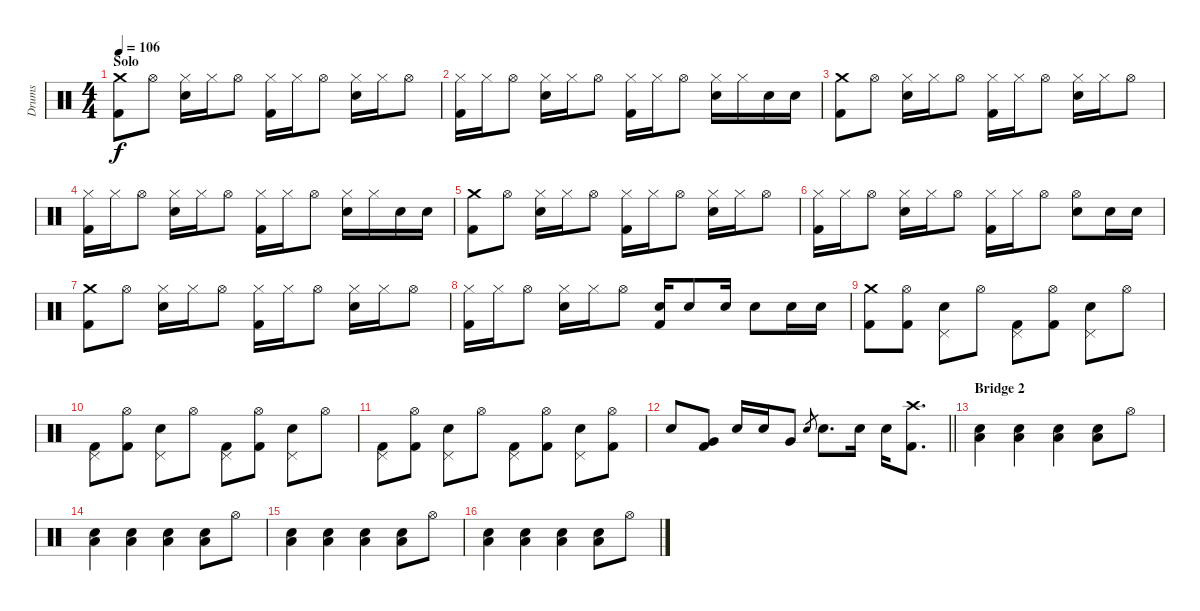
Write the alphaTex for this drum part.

\track ("Drums" "Drums") {instrument percussion}
\staff {score}
\articulation defaults
\ts (4 4)
\section ("" "Solo")
\tempo 106
\clef neutral
\ks c
("Crash medium (hit)" "Kick (hit) 2").8{dy f} "Hi-Hat (open)".8 ("Hi-Hat (closed)" "Electric Snare (hit)").16 "Hi-Hat (closed)".16 "Hi-Hat (open)".8 ("Hi-Hat (closed)" "Kick (hit) 2").16 "Hi-Hat (closed)".16 "Hi-Hat (open)".8 ("Hi-Hat (closed)" "Electric Snare (hit)").16 "Hi-Hat (closed)".16 "Hi-Hat (open)".8 |
("Hi-Hat (closed)" "Kick (hit) 2").16 "Hi-Hat (closed)".16 "Hi-Hat (open)".8 ("Hi-Hat (closed)" "Electric Snare (hit)").16 "Hi-Hat (closed)".16 "Hi-Hat (open)".8 ("Hi-Hat (closed)" "Kick (hit) 2").16 "Hi-Hat (closed)".16 "Hi-Hat (open)".8 ("Hi-Hat (closed)" "Electric Snare (hit)").16 "Hi-Hat (closed)".16 "Electric Snare (hit)".16 "Electric Snare (hit)".16 |
("Crash medium (hit)" "Kick (hit) 2").8 "Hi-Hat (open)".8 ("Hi-Hat (closed)" "Electric Snare (hit)").16 "Hi-Hat (closed)".16 "Hi-Hat (open)".8 ("Hi-Hat (closed)" "Kick (hit) 2").16 "Hi-Hat (closed)".16 "Hi-Hat (open)".8 ("Hi-Hat (closed)" "Electric Snare (hit)").16 "Hi-Hat (closed)".16 "Hi-Hat (open)".8 |
("Hi-Hat (closed)" "Kick (hit) 2").16 "Hi-Hat (closed)".16 "Hi-Hat (open)".8 ("Hi-Hat (closed)" "Electric Snare (hit)").16 "Hi-Hat (closed)".16 "Hi-Hat (open)".8 ("Hi-Hat (closed)" "Kick (hit) 2").16 "Hi-Hat (closed)".16 "Hi-Hat (open)".8 ("Hi-Hat (closed)" "Electric Snare (hit)").16 "Hi-Hat (closed)".16 "Electric Snare (hit)".16 "Electric Snare (hit)".16 |
("Crash medium (hit)" "Kick (hit) 2").8 "Hi-Hat (open)".8 ("Hi-Hat (closed)" "Electric Snare (hit)").16 "Hi-Hat (closed)".16 "Hi-Hat (open)".8 ("Hi-Hat (closed)" "Kick (hit) 2").16 "Hi-Hat (closed)".16 "Hi-Hat (open)".8 ("Hi-Hat (closed)" "Electric Snare (hit)").16 "Hi-Hat (closed)".16 "Hi-Hat (open)".8 |
("Hi-Hat (closed)" "Kick (hit) 2").16 "Hi-Hat (closed)".16 "Hi-Hat (open)".8 ("Hi-Hat (closed)" "Electric Snare (hit)").16 "Hi-Hat (closed)".16 "Hi-Hat (open)".8 ("Hi-Hat (closed)" "Kick (hit) 2").16 "Hi-Hat (closed)".16 "Hi-Hat (open)".8 ("Hi-Hat (open)" "Electric Snare (hit)").8 "Electric Snare (hit)".16 "Electric Snare (hit)".16 |
("Crash medium (hit)" "Kick (hit) 2").8 "Hi-Hat (open)".8 ("Hi-Hat (closed)" "Electric Snare (hit)").16 "Hi-Hat (closed)".16 "Hi-Hat (open)".8 ("Hi-Hat (closed)" "Kick (hit) 2").16 "Hi-Hat (closed)".16 "Hi-Hat (open)".8 ("Hi-Hat (closed)" "Electric Snare (hit)").16 "Hi-Hat (closed)".16 "Hi-Hat (open)".8 |
("Hi-Hat (closed)" "Kick (hit) 2").16 "Hi-Hat (closed)".16 "Hi-Hat (open)".8 ("Hi-Hat (closed)" "Electric Snare (hit)").16 "Hi-Hat (closed)".16 "Hi-Hat (open)".8 ("Electric Snare (hit)" "Kick (hit) 2").16 "Electric Snare (hit)".8 "Electric Snare (hit)".16 "Electric Snare (hit)".8 "Electric Snare (hit)".16 "Electric Snare (hit)".16 |
("Crash medium (hit)" "Kick (hit) 2").8 ("Hi-Hat (open)" "Kick (hit) 2").8 ("Pedal Hi-Hat (hit)" "Electric Snare (hit)").8 "Hi-Hat (open)".8 ("Pedal Hi-Hat (hit)" "Kick (hit) 2").8 ("Hi-Hat (open)" "Kick (hit) 2").8 ("Pedal Hi-Hat (hit)" "Electric Snare (hit)").8 "Hi-Hat (open)".8 |
("Pedal Hi-Hat (hit)" "Kick (hit) 2").8 ("Hi-Hat (open)" "Kick (hit) 2").8 ("Pedal Hi-Hat (hit)" "Electric Snare (hit)").8 "Hi-Hat (open)".8 ("Pedal Hi-Hat (hit)" "Kick (hit) 2").8 ("Hi-Hat (open)" "Kick (hit) 2").8 ("Pedal Hi-Hat (hit)" "Electric Snare (hit)").8 "Hi-Hat (open)".8 |
("Pedal Hi-Hat (hit)" "Kick (hit) 2").8 ("Hi-Hat (open)" "Kick (hit) 2").8 ("Pedal Hi-Hat (hit)" "Electric Snare (hit)").8 "Hi-Hat (open)".8 ("Pedal Hi-Hat (hit)" "Kick (hit) 2").8 ("Hi-Hat (open)" "Kick (hit) 2").8 ("Pedal Hi-Hat (hit)" "Electric Snare (hit)").8 ("Hi-Hat (open)" "Kick (hit) 2").8 |
\barLineRight lightlight "Electric Snare (hit)".8
("Very Low Tom (hit)" "Kick (hit) 2").8 "Electric Snare (hit)".16 "Electric Snare (hit)".16 "Very Low Tom (hit)".8 "Electric Snare (hit)".8{gr} "Electric Snare (hit)".8{d} "Electric Snare (hit)".16 "Electric Snare (hit)".16 ("Crash high (hit)" "Kick (hit) 2").8{d} |
\section ("" "Bridge 2")
("Low Floor Tom (hit)" "Electric Snare (hit)").4 ("Low Floor Tom (hit)" "Electric Snare (hit)").4 ("Low Floor Tom (hit)" "Electric Snare (hit)").4 ("Low Floor Tom (hit)" "Electric Snare (hit)").8 "Hi-Hat (open)".8 |
("Low Floor Tom (hit)" "Electric Snare (hit)").4 ("Low Floor Tom (hit)" "Electric Snare (hit)").4 ("Low Floor Tom (hit)" "Electric Snare (hit)").4 ("Low Floor Tom (hit)" "Electric Snare (hit)").8 "Hi-Hat (open)".8 |
("Low Floor Tom (hit)" "Electric Snare (hit)").4 ("Low Floor Tom (hit)" "Electric Snare (hit)").4 ("Low Floor Tom (hit)" "Electric Snare (hit)").4 ("Low Floor Tom (hit)" "Electric Snare (hit)").8 "Hi-Hat (open)".8 |
("Low Floor Tom (hit)" "Electric Snare (hit)").4 ("Low Floor Tom (hit)" "Electric Snare (hit)").4 ("Low Floor Tom (hit)" "Electric Snare (hit)").4 ("Low Floor Tom (hit)" "Electric Snare (hit)").8 "Hi-Hat (open)".8
